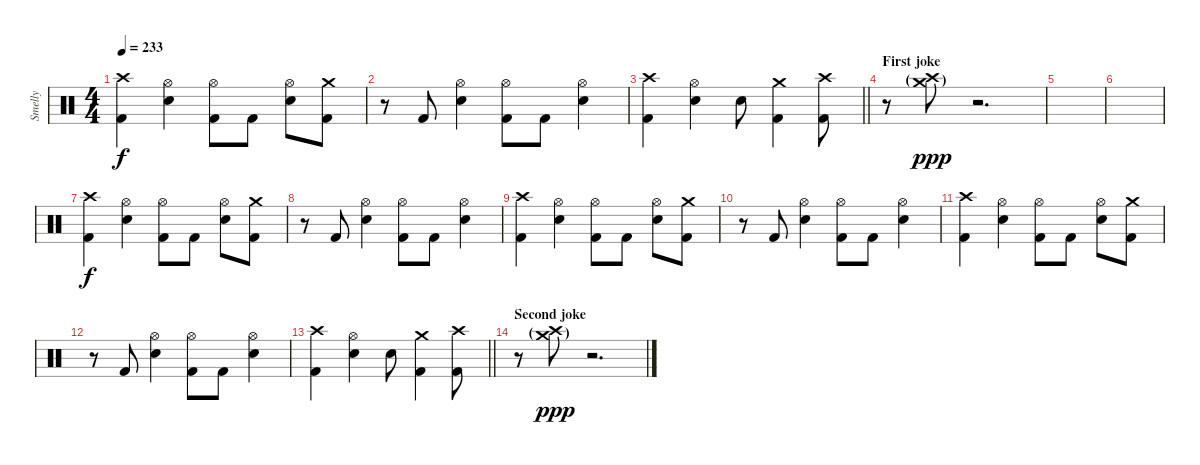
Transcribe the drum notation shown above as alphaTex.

\track ("Smelly" "Smelly") {instrument percussion}
\staff {score}
\articulation defaults
\ts (4 4)
\tempo 233
\clef neutral
\ks c
("Crash high (hit)" "Kick (hit) 2").4{dy f} ("Hi-Hat (open)" "Electric Snare (hit)").4 ("Hi-Hat (open)" "Kick (hit) 2").8 "Kick (hit) 2".8 ("Hi-Hat (open)" "Electric Snare (hit)").8 ("Crash medium (hit)" "Kick (hit) 2").8 |
r.8 "Kick (hit) 2".8 ("Hi-Hat (open)" "Electric Snare (hit)").4 ("Hi-Hat (open)" "Kick (hit) 2").8 "Kick (hit) 2".8 ("Hi-Hat (open)" "Electric Snare (hit)").4 |
\barLineRight lightlight
("Crash high (hit)" "Kick (hit) 2").4 ("Hi-Hat (open)" "Electric Snare (hit)").4 "Electric Snare (hit)".8 ("Crash medium (hit)" "Kick (hit) 2").4 ("Crash high (hit)" "Kick (hit) 2").8 |
\section ("" "First joke")
r.8 ("Crash high (hit)"{g} "Crash medium (hit)"{g}).8{dy ppp} r.2{d} |
|
|
("Crash high (hit)" "Kick (hit) 2").4{dy f} ("Hi-Hat (open)" "Electric Snare (hit)").4 ("Hi-Hat (open)" "Kick (hit) 2").8 "Kick (hit) 2".8 ("Hi-Hat (open)" "Electric Snare (hit)").8 ("Crash medium (hit)" "Kick (hit) 2").8 |
r.8 "Kick (hit) 2".8 ("Hi-Hat (open)" "Electric Snare (hit)").4 ("Hi-Hat (open)" "Kick (hit) 2").8 "Kick (hit) 2".8 ("Hi-Hat (open)" "Electric Snare (hit)").4 |
("Crash high (hit)" "Kick (hit) 2").4 ("Hi-Hat (open)" "Electric Snare (hit)").4 ("Hi-Hat (open)" "Kick (hit) 2").8 "Kick (hit) 2".8 ("Hi-Hat (open)" "Electric Snare (hit)").8 ("Crash medium (hit)" "Kick (hit) 2").8 |
r.8 "Kick (hit) 2".8 ("Hi-Hat (open)" "Electric Snare (hit)").4 ("Hi-Hat (open)" "Kick (hit) 2").8 "Kick (hit) 2".8 ("Hi-Hat (open)" "Electric Snare (hit)").4 |
("Crash high (hit)" "Kick (hit) 2").4 ("Hi-Hat (open)" "Electric Snare (hit)").4 ("Hi-Hat (open)" "Kick (hit) 2").8 "Kick (hit) 2".8 ("Hi-Hat (open)" "Electric Snare (hit)").8 ("Crash medium (hit)" "Kick (hit) 2").8 |
r.8 "Kick (hit) 2".8 ("Hi-Hat (open)" "Electric Snare (hit)").4 ("Hi-Hat (open)" "Kick (hit) 2").8 "Kick (hit) 2".8 ("Hi-Hat (open)" "Electric Snare (hit)").4 |
\barLineRight lightlight
("Crash high (hit)" "Kick (hit) 2").4 ("Hi-Hat (open)" "Electric Snare (hit)").4 "Electric Snare (hit)".8 ("Crash medium (hit)" "Kick (hit) 2").4 ("Crash high (hit)" "Kick (hit) 2").8 |
\section ("" "Second joke")
r.8 ("Crash high (hit)"{g} "Crash medium (hit)"{g}).8{dy ppp} r.2{d}
